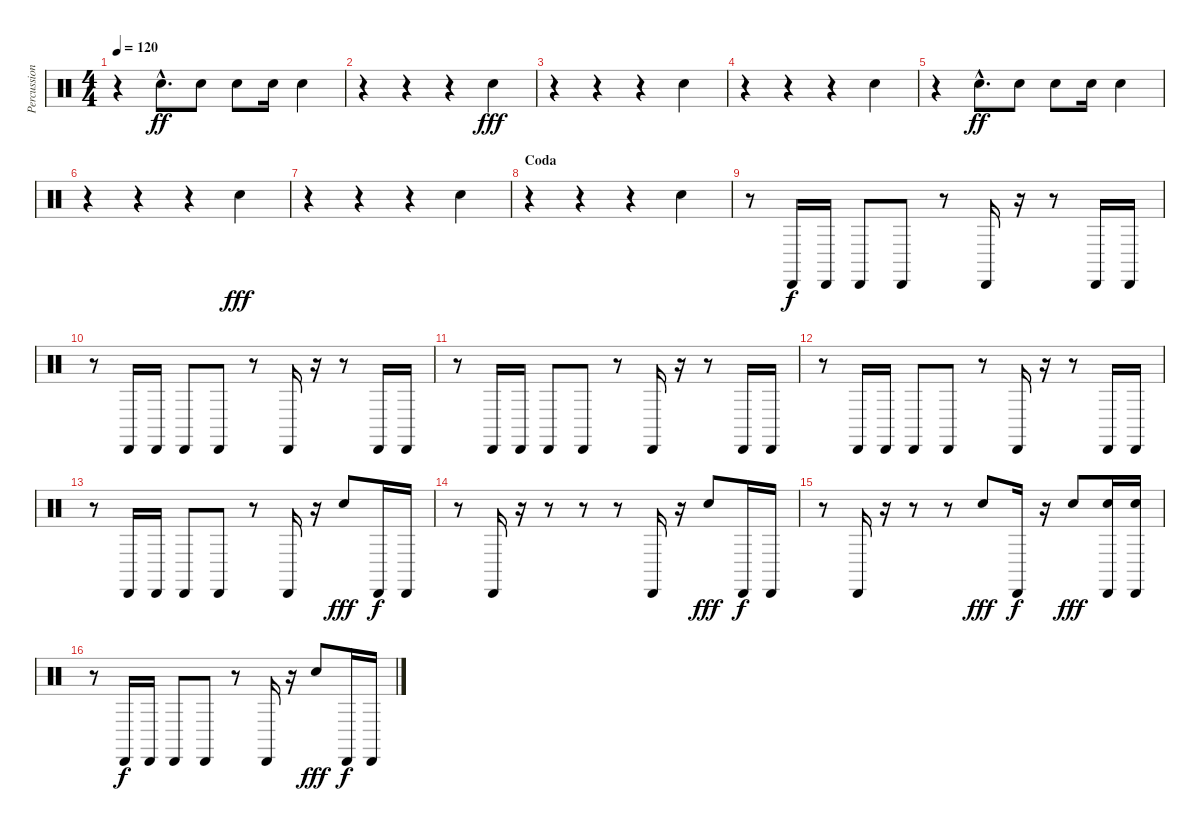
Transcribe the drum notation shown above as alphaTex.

\track ("Percussion" "Percussion") {instrument percussion}
\staff {score}
\articulation defaults
\ts (4 4)
\tempo 120
\clef neutral
\ks c
r.4{dy fff} "Hand Clap (hit)"{hac}.8{d dy ff} "Hand Clap (hit)".8 "Hand Clap (hit)".8 "Hand Clap (hit)".16 "Hand Clap (hit)".4 |
r.4 r.4 r.4 "Hand Clap (hit)".4{dy fff} |
r.4 r.4 r.4 "Hand Clap (hit)".4 |
r.4 r.4 r.4 "Hand Clap (hit)".4 |
r.4 "Hand Clap (hit)"{hac}.8{d dy ff} "Hand Clap (hit)".8 "Hand Clap (hit)".8 "Hand Clap (hit)".16 "Hand Clap (hit)".4 |
r.4 r.4 r.4 "Hand Clap (hit)".4{dy fff} |
r.4 r.4 r.4 "Hand Clap (hit)".4 |
\section ("" "Coda")
r.4 r.4 r.4 "Hand Clap (hit)".4 |
r.8 "Cabasa (hit)".16{dy f} "Cabasa (hit)".16 "Cabasa (hit)".8 "Cabasa (hit)".8 r.8 "Cabasa (hit)".16 r.16 r.8 "Cabasa (hit)".16 "Cabasa (hit)".16 |
r.8 "Cabasa (hit)".16 "Cabasa (hit)".16 "Cabasa (hit)".8 "Cabasa (hit)".8 r.8 "Cabasa (hit)".16 r.16 r.8 "Cabasa (hit)".16 "Cabasa (hit)".16 |
r.8 "Cabasa (hit)".16 "Cabasa (hit)".16 "Cabasa (hit)".8 "Cabasa (hit)".8 r.8 "Cabasa (hit)".16 r.16 r.8 "Cabasa (hit)".16 "Cabasa (hit)".16 |
r.8 "Cabasa (hit)".16 "Cabasa (hit)".16 "Cabasa (hit)".8 "Cabasa (hit)".8 r.8 "Cabasa (hit)".16 r.16 r.8 "Cabasa (hit)".16 "Cabasa (hit)".16 |
r.8 "Cabasa (hit)".16 "Cabasa (hit)".16 "Cabasa (hit)".8 "Cabasa (hit)".8 r.8 "Cabasa (hit)".16 r.16 "Hand Clap (hit)".8{dy fff} "Cabasa (hit)".16{dy f} "Cabasa (hit)".16 |
r.8 "Cabasa (hit)".16 r.16 r.8 r.8 r.8 "Cabasa (hit)".16 r.16 "Hand Clap (hit)".8{dy fff} "Cabasa (hit)".16{dy f} "Cabasa (hit)".16 |
r.8 "Cabasa (hit)".16 r.16 r.8 r.8 "Hand Clap (hit)".8{dy fff} "Cabasa (hit)".16{dy f} r.16 "Hand Clap (hit)".8{dy fff} ("Cabasa (hit)" "Hand Clap (hit)").16 ("Cabasa (hit)" "Hand Clap (hit)").16 |
r.8 "Cabasa (hit)".16{dy f} "Cabasa (hit)".16 "Cabasa (hit)".8 "Cabasa (hit)".8 r.8 "Cabasa (hit)".16 r.16 "Hand Clap (hit)".8{dy fff} "Cabasa (hit)".16{dy f} "Cabasa (hit)".16
